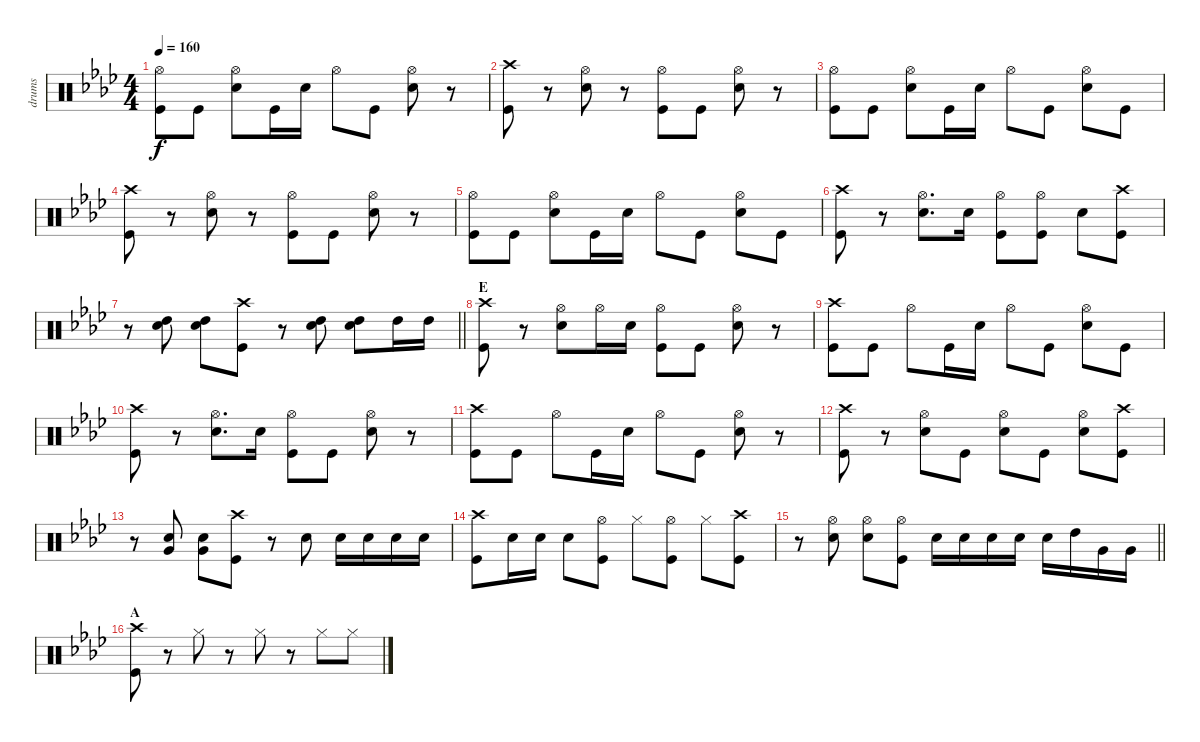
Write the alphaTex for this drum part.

\track ("drums" "drums") {instrument percussion}
\staff {score}
\articulation defaults
\ts (4 4)
\tempo 160
\clef neutral
\ks ab
("Hi-Hat (open)" "Kick (hit)").8{dy f} "Kick (hit)".8 ("Hi-Hat (open)" "Snare (hit) 2").8 "Kick (hit)".16 "Snare (hit) 2".16 "Hi-Hat (open)".8 "Kick (hit)".8 ("Hi-Hat (open)" "Snare (hit) 2").8 r.8 |
("Crash high (hit)" "Kick (hit)").8 r.8 ("Hi-Hat (open)" "Snare (hit) 2").8 r.8 ("Hi-Hat (open)" "Kick (hit)").8 "Kick (hit)".8 ("Hi-Hat (open)" "Snare (hit) 2").8 r.8 |
("Hi-Hat (open)" "Kick (hit)").8 "Kick (hit)".8 ("Hi-Hat (open)" "Snare (hit) 2").8 "Kick (hit)".16 "Snare (hit) 2".16 "Hi-Hat (open)".8 "Kick (hit)".8 ("Hi-Hat (open)" "Snare (hit) 2").8 "Kick (hit)".8 |
("Crash high (hit)" "Kick (hit)").8 r.8 ("Hi-Hat (open)" "Snare (hit) 2").8 r.8 ("Hi-Hat (open)" "Kick (hit)").8 "Kick (hit)".8 ("Hi-Hat (open)" "Snare (hit) 2").8 r.8 |
("Hi-Hat (open)" "Kick (hit)").8 "Kick (hit)".8 ("Hi-Hat (open)" "Snare (hit) 2").8 "Kick (hit)".16 "Snare (hit) 2".16 "Hi-Hat (open)".8 "Kick (hit)".8 ("Hi-Hat (open)" "Snare (hit) 2").8 "Kick (hit)".8 |
("Crash high (hit)" "Kick (hit)").8 r.8 ("Hi-Hat (open)" "Snare (hit) 2").8{d} "Snare (hit) 2".16 ("Hi-Hat (open)" "Kick (hit)").8 ("Hi-Hat (open)" "Kick (hit)").8 "Snare (hit) 2".8 ("Crash high (hit)" "Kick (hit)").8 |
\barLineRight lightlight
r.8 ("High Tom (hit)" "Snare (hit) 2").8 ("High Tom (hit)" "Snare (hit) 2").8 ("Crash high (hit)" "Kick (hit)").8 r.8 ("High Tom (hit)" "Snare (hit) 2").8 ("High Tom (hit)" "Snare (hit) 2").8 "High Tom (hit)".16 "High Tom (hit)".16 |
\section ("" "E")
("Crash high (hit)" "Kick (hit)").8 r.8 ("Hi-Hat (open)" "Snare (hit) 2").8 "Hi-Hat (open)".16 "Snare (hit) 2".16 ("Hi-Hat (open)" "Kick (hit)").8 "Kick (hit)".8 ("Hi-Hat (open)" "Snare (hit) 2").8 r.8 |
("Crash high (hit)" "Kick (hit)").8 "Kick (hit)".8 "Hi-Hat (open)".8 "Kick (hit)".16 "Snare (hit) 2".16 "Hi-Hat (open)".8 "Kick (hit)".8 ("Hi-Hat (open)" "Snare (hit) 2").8 "Kick (hit)".8 |
("Crash high (hit)" "Kick (hit)").8 r.8 ("Hi-Hat (open)" "Snare (hit) 2").8{d} "Snare (hit) 2".16 ("Hi-Hat (open)" "Kick (hit)").8 "Kick (hit)".8 ("Hi-Hat (open)" "Snare (hit) 2").8 r.8 |
("Crash high (hit)" "Kick (hit)").8 "Kick (hit)".8 "Hi-Hat (open)".8 "Kick (hit)".16 "Snare (hit) 2".16 "Hi-Hat (open)".8 "Kick (hit)".8 ("Hi-Hat (open)" "Snare (hit) 2").8 r.8 |
("Crash high (hit)" "Kick (hit)").8 r.8 ("Hi-Hat (open)" "Snare (hit) 2").8 "Kick (hit)".8 ("Hi-Hat (open)" "Snare (hit) 2").8 "Kick (hit)".8 ("Hi-Hat (open)" "Snare (hit) 2").8 ("Crash high (hit)" "Kick (hit)").8 |
r.8 ("Snare (hit) 2" "Very Low Tom (hit)").8 ("Snare (hit) 2" "Very Low Tom (hit)").8 ("Crash high (hit)" "Kick (hit)").8 r.8 "Snare (hit) 2".8 "Snare (hit) 2".16 "Snare (hit) 2".16 "Snare (hit) 2".16 "Snare (hit) 2".16 |
("Crash high (hit)" "Kick (hit)").8 "Snare (hit) 2".16 "Snare (hit) 2".16 "Snare (hit) 2".8 ("Hi-Hat (open)" "Kick (hit)").8 "Hi-Hat (closed)".8 ("Hi-Hat (open)" "Kick (hit)").8 "Hi-Hat (closed)".8 ("Crash high (hit)" "Kick (hit)").8 |
\barLineRight lightlight
r.8 ("Hi-Hat (open)" "Snare (hit) 2").8 ("Hi-Hat (open)" "Snare (hit) 2").8 ("Hi-Hat (open)" "Kick (hit)").8 "Snare (hit) 2".16 "Snare (hit) 2".16 "Snare (hit) 2".16 "Snare (hit) 2".16 "Snare (hit) 2".16 "High Tom (hit)".16 "Very Low Tom (hit)".16 "Very Low Tom (hit)".16 |
\section ("" "A")
("Crash high (hit)" "Kick (hit)").8 r.8 "Hi-Hat (closed)".8 r.8 "Hi-Hat (closed)".8 r.8 "Hi-Hat (closed)".8 "Hi-Hat (closed)".8
